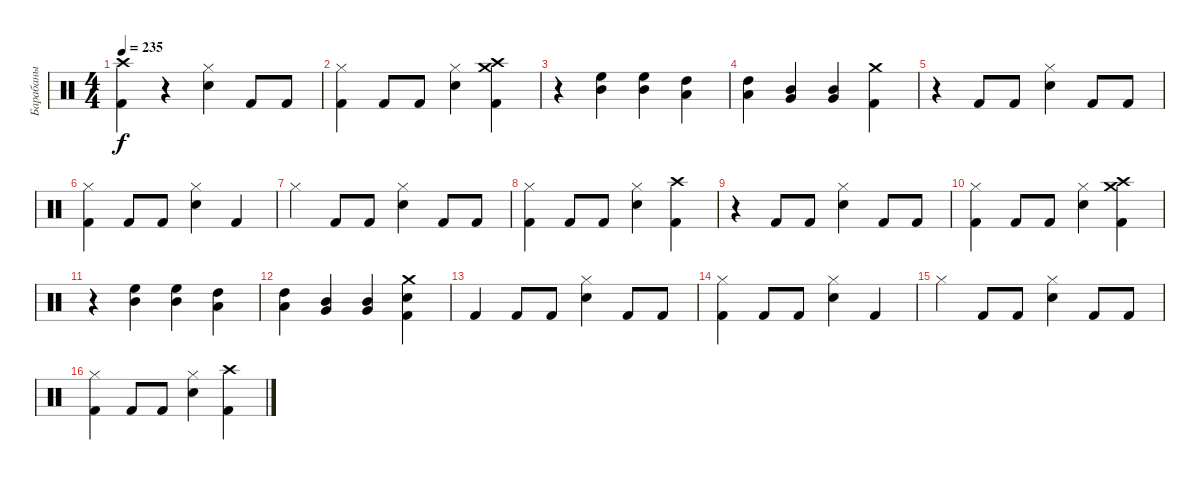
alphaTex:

\track ("Барабаны" "Барабаны") {instrument percussion}
\staff {score}
\articulation defaults
\ts (4 4)
\tempo 235
\clef neutral
\ks c
("Kick (hit) 2" "Crash high (hit)").4{dy f} r.4 ("Hi-Hat (closed)" "Electric Snare (hit)").4 "Kick (hit) 2".8 "Kick (hit) 2".8 |
("Hi-Hat (closed)" "Kick (hit) 2").4 "Kick (hit) 2".8 "Kick (hit) 2".8 ("Hi-Hat (closed)" "Electric Snare (hit)").4 ("Crash high (hit)" "Crash medium (hit)" "Kick (hit) 2").4 |
r.4 ("High Floor Tom (hit)" "Mid Tom (hit)").4 ("High Floor Tom (hit)" "Mid Tom (hit)").4 ("High Tom (hit)" "Low Tom (hit)").4 |
("High Tom (hit)" "Low Tom (hit)").4 ("Mid Tom (hit)" "Very Low Tom (hit)").4 ("Mid Tom (hit)" "Very Low Tom (hit)").4 ("Crash medium (hit)" "Kick (hit) 2").4 |
r.4 "Kick (hit) 2".8 "Kick (hit) 2".8 ("Hi-Hat (closed)" "Electric Snare (hit)").4 "Kick (hit) 2".8 "Kick (hit) 2".8 |
("Hi-Hat (closed)" "Kick (hit) 2").4 "Kick (hit) 2".8 "Kick (hit) 2".8 ("Hi-Hat (closed)" "Electric Snare (hit)").4 "Kick (hit) 2".4 |
"Hi-Hat (closed)".4 "Kick (hit) 2".8 "Kick (hit) 2".8 ("Electric Snare (hit)" "Hi-Hat (closed)").4 "Kick (hit) 2".8 "Kick (hit) 2".8 |
("Kick (hit) 2" "Hi-Hat (closed)").4 "Kick (hit) 2".8 "Kick (hit) 2".8 ("Electric Snare (hit)" "Hi-Hat (closed)").4 ("Crash high (hit)" "Kick (hit) 2").4 |
r.4 "Kick (hit) 2".8 "Kick (hit) 2".8 ("Hi-Hat (closed)" "Electric Snare (hit)").4 "Kick (hit) 2".8 "Kick (hit) 2".8 |
("Hi-Hat (closed)" "Kick (hit) 2").4 "Kick (hit) 2".8 "Kick (hit) 2".8 ("Hi-Hat (closed)" "Electric Snare (hit)").4 ("Crash high (hit)" "Crash medium (hit)" "Kick (hit) 2").4 |
r.4 ("High Floor Tom (hit)" "Mid Tom (hit)").4 ("High Floor Tom (hit)" "Mid Tom (hit)").4 ("High Tom (hit)" "Low Tom (hit)").4 |
("High Tom (hit)" "Low Tom (hit)").4 ("Mid Tom (hit)" "Very Low Tom (hit)").4 ("Mid Tom (hit)" "Very Low Tom (hit)").4 ("Electric Snare (hit)" "Crash medium (hit)" "Kick (hit) 2").4 |
"Kick (hit) 2".4 "Kick (hit) 2".8 "Kick (hit) 2".8 ("Hi-Hat (closed)" "Electric Snare (hit)").4 "Kick (hit) 2".8 "Kick (hit) 2".8 |
("Hi-Hat (closed)" "Kick (hit) 2").4 "Kick (hit) 2".8 "Kick (hit) 2".8 ("Hi-Hat (closed)" "Electric Snare (hit)").4 "Kick (hit) 2".4 |
"Hi-Hat (closed)".4 "Kick (hit) 2".8 "Kick (hit) 2".8 ("Electric Snare (hit)" "Hi-Hat (closed)").4 "Kick (hit) 2".8 "Kick (hit) 2".8 |
("Kick (hit) 2" "Hi-Hat (closed)").4 "Kick (hit) 2".8 "Kick (hit) 2".8 ("Electric Snare (hit)" "Hi-Hat (closed)").4 ("Crash high (hit)" "Kick (hit) 2").4
